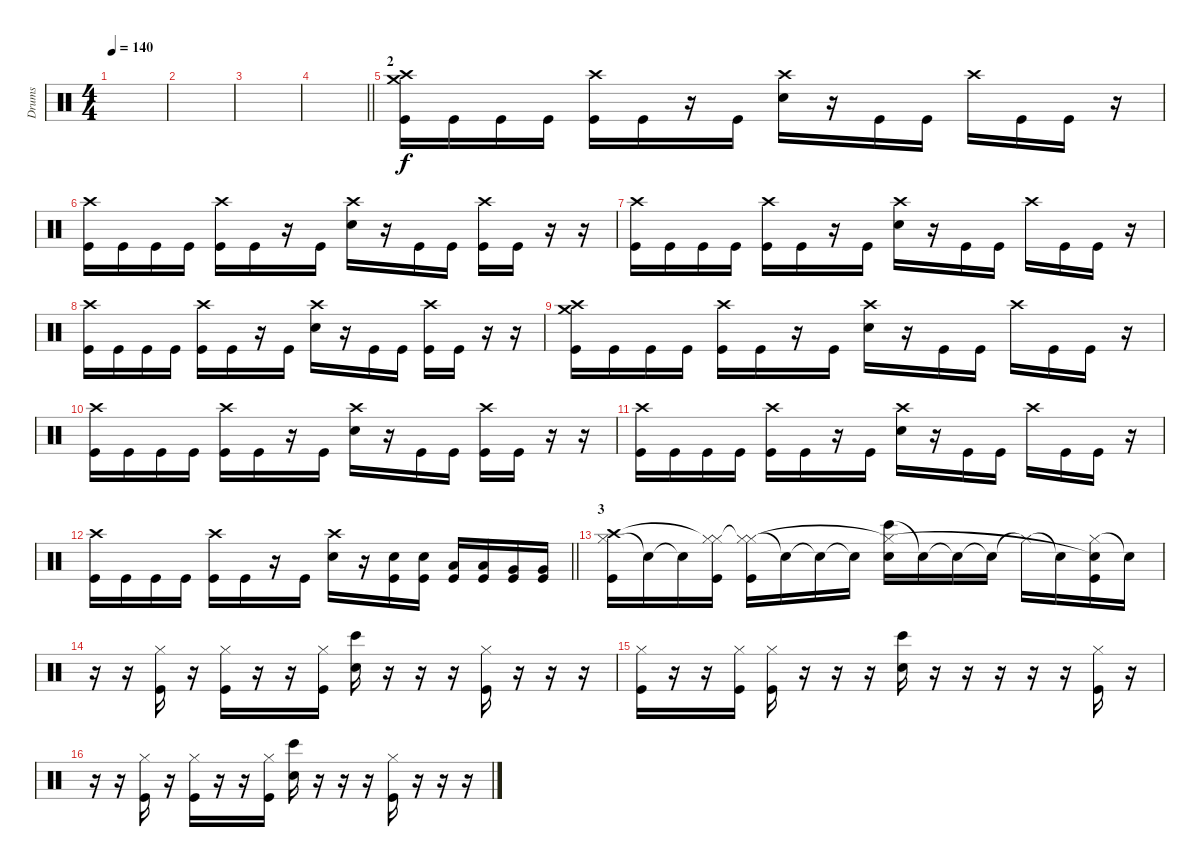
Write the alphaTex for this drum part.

\track ("Drums" "Drums") {instrument percussion}
\staff {score}
\articulation defaults
\ts (4 4)
\tempo 140
\clef neutral
\ks c
|
|
|
\barLineRight lightlight
|
\section ("" "2")
("Kick (hit)" "Crash high (hit)" "Crash medium (hit)").16 "Kick (hit)".16 "Kick (hit)".16 "Kick (hit)".16 ("Kick (hit)" "Crash high (hit)").16 "Kick (hit)".16 r.16 "Kick (hit)".16 ("Snare (hit) 2" "Crash high (hit)").16 r.16 "Kick (hit)".16 "Kick (hit)".16 "Crash high (hit)".16 "Kick (hit)".16 "Kick (hit)".16 r.16 |
("Kick (hit)" "Crash high (hit)").16 "Kick (hit)".16 "Kick (hit)".16 "Kick (hit)".16 ("Kick (hit)" "Crash high (hit)").16 "Kick (hit)".16 r.16 "Kick (hit)".16 ("Snare (hit) 2" "Crash high (hit)").16 r.16 "Kick (hit)".16 "Kick (hit)".16 ("Kick (hit)" "Crash high (hit)").16 "Kick (hit)".16 r.16 r.16 |
("Kick (hit)" "Crash high (hit)").16 "Kick (hit)".16 "Kick (hit)".16 "Kick (hit)".16 ("Kick (hit)" "Crash high (hit)").16 "Kick (hit)".16 r.16 "Kick (hit)".16 ("Snare (hit) 2" "Crash high (hit)").16 r.16 "Kick (hit)".16 "Kick (hit)".16 "Crash high (hit)".16 "Kick (hit)".16 "Kick (hit)".16 r.16 |
("Kick (hit)" "Crash high (hit)").16 "Kick (hit)".16 "Kick (hit)".16 "Kick (hit)".16 ("Kick (hit)" "Crash high (hit)").16 "Kick (hit)".16 r.16 "Kick (hit)".16 ("Snare (hit) 2" "Crash high (hit)").16 r.16 "Kick (hit)".16 "Kick (hit)".16 ("Kick (hit)" "Crash high (hit)").16 "Kick (hit)".16 r.16 r.16 |
("Kick (hit)" "Crash high (hit)" "Crash medium (hit)").16 "Kick (hit)".16 "Kick (hit)".16 "Kick (hit)".16 ("Kick (hit)" "Crash high (hit)").16 "Kick (hit)".16 r.16 "Kick (hit)".16 ("Snare (hit) 2" "Crash high (hit)").16 r.16 "Kick (hit)".16 "Kick (hit)".16 "Crash high (hit)".16 "Kick (hit)".16 "Kick (hit)".16 r.16 |
("Kick (hit)" "Crash high (hit)").16 "Kick (hit)".16 "Kick (hit)".16 "Kick (hit)".16 ("Kick (hit)" "Crash high (hit)").16 "Kick (hit)".16 r.16 "Kick (hit)".16 ("Snare (hit) 2" "Crash high (hit)").16 r.16 "Kick (hit)".16 "Kick (hit)".16 ("Kick (hit)" "Crash high (hit)").16 "Kick (hit)".16 r.16 r.16 |
("Kick (hit)" "Crash high (hit)").16 "Kick (hit)".16 "Kick (hit)".16 "Kick (hit)".16 ("Kick (hit)" "Crash high (hit)").16 "Kick (hit)".16 r.16 "Kick (hit)".16 ("Snare (hit) 2" "Crash high (hit)").16 r.16 "Kick (hit)".16 "Kick (hit)".16 "Crash high (hit)".16 "Kick (hit)".16 "Kick (hit)".16 r.16 |
\barLineRight lightlight
("Kick (hit)" "Crash high (hit)").16 "Kick (hit)".16 "Kick (hit)".16 "Kick (hit)".16 ("Kick (hit)" "Crash high (hit)").16 "Kick (hit)".16 r.16 "Kick (hit)".16 ("Snare (hit) 2" "Crash high (hit)").16 r.16 ("Kick (hit)" "Snare (hit) 2").16 ("Kick (hit)" "Snare (hit) 2").16 ("Kick (hit)" "Low Tom (hit)").16 ("Kick (hit)" "Low Tom (hit)").16 ("Kick (hit)" "Very Low Tom (hit)").16 ("Kick (hit)" "Very Low Tom (hit)").16 |
\section ("" "3")
("Hi-Hat (closed)" "Kick (hit)" "Crash high (hit)").16 "Snare (hit)"{t}.16 "Snare (hit)"{t}.16 ("Hi-Hat (closed)" "Kick (hit)" "Hi-Hat (closed)"{t}).16 ("Hi-Hat (closed)" "Kick (hit)" "Hi-Hat (closed)"{t}).16 "Snare (hit)"{t}.16 "Snare (hit)"{t}.16 "Snare (hit)"{t}.16 ("Bongo High (hit)" "Snare (hit) 2" "Hi-Hat (closed)"{t}).16 "Snare (hit)"{t}.16 "Snare (hit)"{t}.16 "Snare (hit)"{t}.16 "Hi-Hat (closed)"{t}.16 "Snare (hit)"{t}.16 ("Hi-Hat (closed)" "Kick (hit)" "Snare (hit)"{t}).16 "Snare (hit)"{t}.16 |
r.16 r.16 ("Hi-Hat (closed)" "Kick (hit)").16 r.16 ("Hi-Hat (closed)" "Kick (hit)").16 r.16 r.16 ("Hi-Hat (closed)" "Kick (hit)").16 ("Bongo High (hit)" "Snare (hit) 2").16 r.16 r.16 r.16 ("Hi-Hat (closed)" "Kick (hit)").16 r.16 r.16 r.16 |
("Hi-Hat (closed)" "Kick (hit)").16 r.16 r.16 ("Hi-Hat (closed)" "Kick (hit)").16 ("Hi-Hat (closed)" "Kick (hit)").16 r.16 r.16 r.16 ("Bongo High (hit)" "Snare (hit) 2").16 r.16 r.16 r.16 r.16 r.16 ("Hi-Hat (closed)" "Kick (hit)").16 r.16 |
r.16 r.16 ("Hi-Hat (closed)" "Kick (hit)").16 r.16 ("Hi-Hat (closed)" "Kick (hit)").16 r.16 r.16 ("Hi-Hat (closed)" "Kick (hit)").16 ("Bongo High (hit)" "Snare (hit) 2").16 r.16 r.16 r.16 ("Hi-Hat (closed)" "Kick (hit)").16 r.16 r.16 r.16
